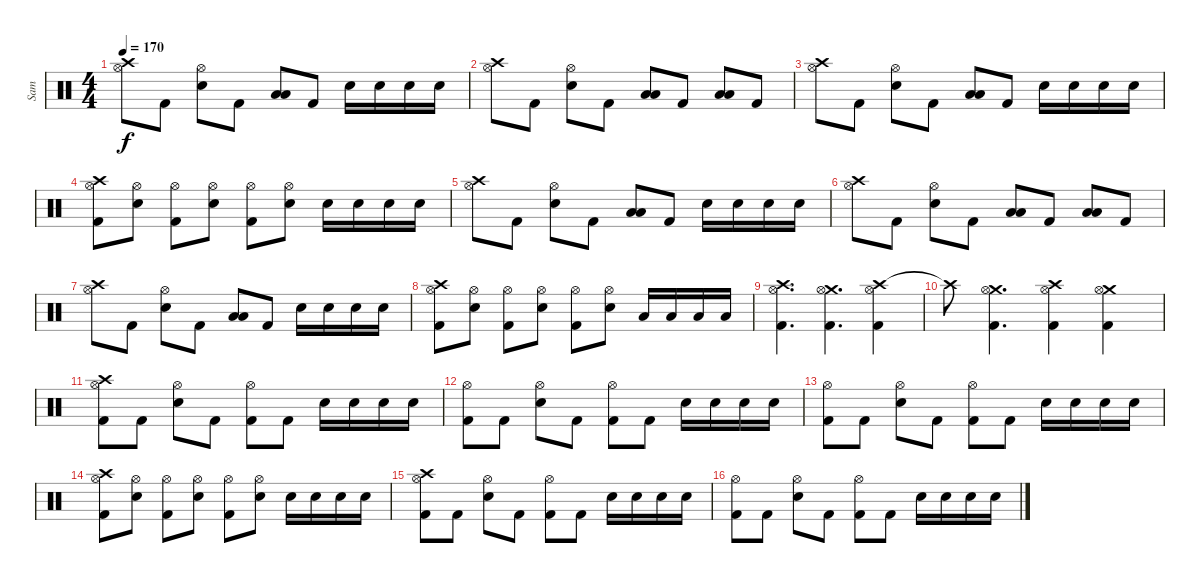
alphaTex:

\track ("Sam" "Sam") {instrument percussion}
\staff {score}
\articulation defaults
\ts (4 4)
\tempo 170
\clef neutral
\ks c
("Hi-Hat (open)" "Crash high (hit)").8{dy f} "Kick (hit) 2".8 ("Hi-Hat (open)" "Electric Snare (hit)").8 "Kick (hit) 2".8 ("Low Tom (hit)" "Low Floor Tom (hit)").8 "Kick (hit) 2".8 "Electric Snare (hit)".16 "Electric Snare (hit)".16 "Electric Snare (hit)".16 "Electric Snare (hit)".16 |
("Hi-Hat (open)" "Crash high (hit)").8 "Kick (hit) 2".8 ("Hi-Hat (open)" "Electric Snare (hit)").8 "Kick (hit) 2".8 ("Low Tom (hit)" "Low Floor Tom (hit)").8 "Kick (hit) 2".8 ("Low Tom (hit)" "Low Floor Tom (hit)").8 "Kick (hit) 2".8 |
("Hi-Hat (open)" "Crash high (hit)").8 "Kick (hit) 2".8 ("Hi-Hat (open)" "Electric Snare (hit)").8 "Kick (hit) 2".8 ("Low Tom (hit)" "Low Floor Tom (hit)").8 "Kick (hit) 2".8 "Electric Snare (hit)".16 "Electric Snare (hit)".16 "Electric Snare (hit)".16 "Electric Snare (hit)".16 |
("Hi-Hat (open)" "Crash high (hit)" "Kick (hit) 2").8 ("Hi-Hat (open)" "Electric Snare (hit)").8 ("Hi-Hat (open)" "Kick (hit) 2").8 ("Hi-Hat (open)" "Electric Snare (hit)").8 ("Hi-Hat (open)" "Kick (hit) 2").8 ("Hi-Hat (open)" "Electric Snare (hit)").8 "Electric Snare (hit)".16 "Electric Snare (hit)".16 "Electric Snare (hit)".16 "Electric Snare (hit)".16 |
("Hi-Hat (open)" "Crash high (hit)").8 "Kick (hit) 2".8 ("Hi-Hat (open)" "Electric Snare (hit)").8 "Kick (hit) 2".8 ("Low Tom (hit)" "Low Floor Tom (hit)").8 "Kick (hit) 2".8 "Electric Snare (hit)".16 "Electric Snare (hit)".16 "Electric Snare (hit)".16 "Electric Snare (hit)".16 |
("Hi-Hat (open)" "Crash high (hit)").8 "Kick (hit) 2".8 ("Hi-Hat (open)" "Electric Snare (hit)").8 "Kick (hit) 2".8 ("Low Tom (hit)" "Low Floor Tom (hit)").8 "Kick (hit) 2".8 ("Low Tom (hit)" "Low Floor Tom (hit)").8 "Kick (hit) 2".8 |
("Hi-Hat (open)" "Crash high (hit)").8 "Kick (hit) 2".8 ("Hi-Hat (open)" "Electric Snare (hit)").8 "Kick (hit) 2".8 ("Low Tom (hit)" "Low Floor Tom (hit)").8 "Kick (hit) 2".8 "Electric Snare (hit)".16 "Electric Snare (hit)".16 "Electric Snare (hit)".16 "Electric Snare (hit)".16 |
("Hi-Hat (open)" "Crash high (hit)" "Kick (hit) 2").8 ("Hi-Hat (open)" "Electric Snare (hit)").8 ("Hi-Hat (open)" "Kick (hit) 2").8 ("Hi-Hat (open)" "Electric Snare (hit)").8 ("Hi-Hat (open)" "Kick (hit) 2").8 ("Hi-Hat (open)" "Electric Snare (hit)").8 "Low Tom (hit)".16 "Low Tom (hit)".16 "Low Floor Tom (hit)".16 "Low Floor Tom (hit)".16 |
("Crash high (hit)" "Hi-Hat (open)" "Kick (hit) 2").4{d} ("Crash medium (hit)" "Hi-Hat (open)" "Kick (hit) 2").4{d} ("Crash high (hit)" "Hi-Hat (open)" "Kick (hit) 2").4 |
"Crash high (hit)"{t}.8 ("Crash medium (hit)" "Hi-Hat (open)" "Kick (hit) 2").4{d} ("Crash high (hit)" "Hi-Hat (open)" "Kick (hit) 2").4 ("Crash medium (hit)" "Hi-Hat (open)" "Kick (hit) 2").4 |
("Hi-Hat (open)" "Crash high (hit)" "Kick (hit) 2").8 "Kick (hit) 2".8 ("Hi-Hat (open)" "Electric Snare (hit)").8 "Kick (hit) 2".8 ("Hi-Hat (open)" "Kick (hit) 2").8 "Kick (hit) 2".8 "Electric Snare (hit)".16 "Electric Snare (hit)".16 "Electric Snare (hit)".16 "Electric Snare (hit)".16 |
("Hi-Hat (open)" "Kick (hit) 2").8 "Kick (hit) 2".8 ("Hi-Hat (open)" "Electric Snare (hit)").8 "Kick (hit) 2".8 ("Hi-Hat (open)" "Kick (hit) 2").8 "Kick (hit) 2".8 "Electric Snare (hit)".16 "Electric Snare (hit)".16 "Electric Snare (hit)".16 "Electric Snare (hit)".16 |
("Hi-Hat (open)" "Kick (hit) 2").8 "Kick (hit) 2".8 ("Hi-Hat (open)" "Electric Snare (hit)").8 "Kick (hit) 2".8 ("Hi-Hat (open)" "Kick (hit) 2").8 "Kick (hit) 2".8 "Electric Snare (hit)".16 "Electric Snare (hit)".16 "Electric Snare (hit)".16 "Electric Snare (hit)".16 |
("Hi-Hat (open)" "Crash high (hit)" "Kick (hit) 2").8 ("Hi-Hat (open)" "Electric Snare (hit)").8 ("Hi-Hat (open)" "Kick (hit) 2").8 ("Hi-Hat (open)" "Electric Snare (hit)").8 ("Hi-Hat (open)" "Kick (hit) 2").8 ("Hi-Hat (open)" "Electric Snare (hit)").8 "Electric Snare (hit)".16 "Electric Snare (hit)".16 "Electric Snare (hit)".16 "Electric Snare (hit)".16 |
("Hi-Hat (open)" "Crash high (hit)" "Kick (hit) 2").8 "Kick (hit) 2".8 ("Hi-Hat (open)" "Electric Snare (hit)").8 "Kick (hit) 2".8 ("Hi-Hat (open)" "Kick (hit) 2").8 "Kick (hit) 2".8 "Electric Snare (hit)".16 "Electric Snare (hit)".16 "Electric Snare (hit)".16 "Electric Snare (hit)".16 |
("Hi-Hat (open)" "Kick (hit) 2").8 "Kick (hit) 2".8 ("Hi-Hat (open)" "Electric Snare (hit)").8 "Kick (hit) 2".8 ("Hi-Hat (open)" "Kick (hit) 2").8 "Kick (hit) 2".8 "Electric Snare (hit)".16 "Electric Snare (hit)".16 "Electric Snare (hit)".16 "Electric Snare (hit)".16
